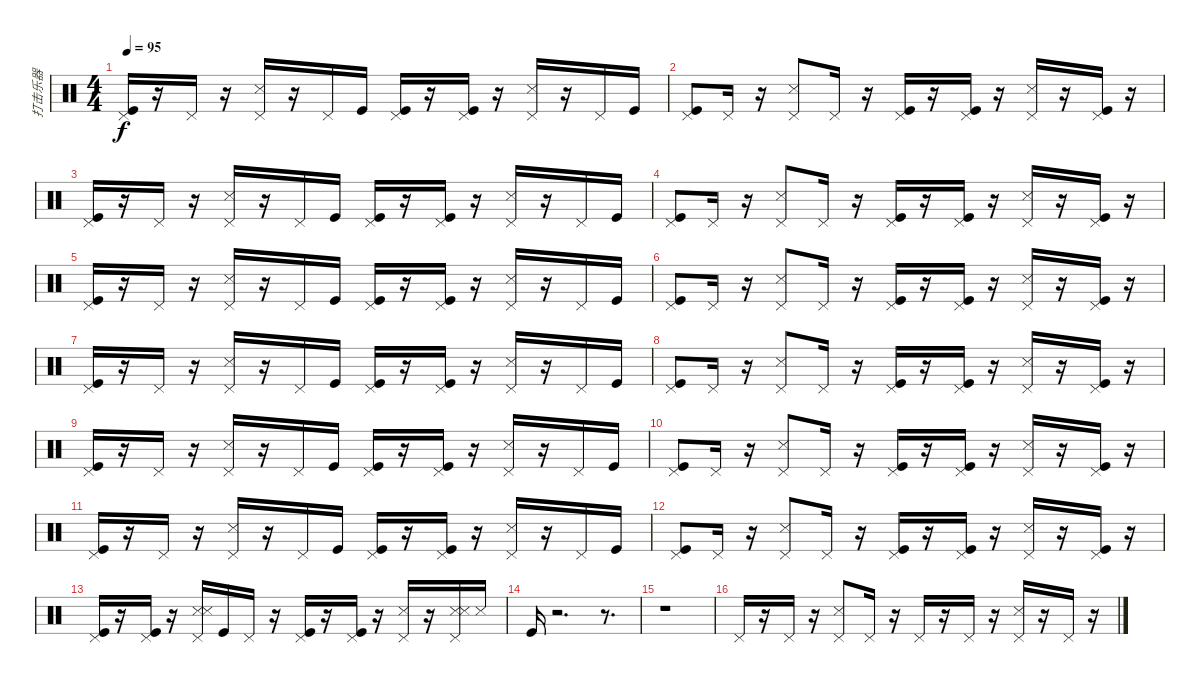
\track ("打击乐器" "打击乐器") {instrument percussion}
\staff {score}
\articulation defaults
\ts (4 4)
\tempo 95
\clef neutral
\ks c
("Pedal Hi-Hat (hit)" "Kick (hit)").16{dy f} r.16 "Pedal Hi-Hat (hit)".16 r.16 ("Pedal Hi-Hat (hit)" "Snare (side stick) 3").16 r.16 "Pedal Hi-Hat (hit)".16 "Kick (hit)".16 ("Pedal Hi-Hat (hit)" "Kick (hit)").16 r.16 ("Pedal Hi-Hat (hit)" "Kick (hit)").16 r.16 ("Pedal Hi-Hat (hit)" "Snare (side stick) 3").16 r.16 "Pedal Hi-Hat (hit)".16 "Kick (hit)".16 |
("Pedal Hi-Hat (hit)" "Kick (hit)").8 "Pedal Hi-Hat (hit)".16 r.16 ("Pedal Hi-Hat (hit)" "Snare (side stick) 3").8 "Pedal Hi-Hat (hit)".16 r.16 ("Kick (hit)" "Pedal Hi-Hat (hit)").16 r.16 ("Kick (hit)" "Pedal Hi-Hat (hit)").16 r.16 ("Snare (side stick) 3" "Pedal Hi-Hat (hit)").16 r.16 ("Kick (hit)" "Pedal Hi-Hat (hit)").16 r.16 |
("Pedal Hi-Hat (hit)" "Kick (hit)").16 r.16 "Pedal Hi-Hat (hit)".16 r.16 ("Pedal Hi-Hat (hit)" "Snare (side stick) 3").16 r.16 "Pedal Hi-Hat (hit)".16 "Kick (hit)".16 ("Pedal Hi-Hat (hit)" "Kick (hit)").16 r.16 ("Pedal Hi-Hat (hit)" "Kick (hit)").16 r.16 ("Pedal Hi-Hat (hit)" "Snare (side stick) 3").16 r.16 "Pedal Hi-Hat (hit)".16 "Kick (hit)".16 |
("Pedal Hi-Hat (hit)" "Kick (hit)").8 "Pedal Hi-Hat (hit)".16 r.16 ("Pedal Hi-Hat (hit)" "Snare (side stick) 3").8 "Pedal Hi-Hat (hit)".16 r.16 ("Kick (hit)" "Pedal Hi-Hat (hit)").16 r.16 ("Kick (hit)" "Pedal Hi-Hat (hit)").16 r.16 ("Snare (side stick) 3" "Pedal Hi-Hat (hit)").16 r.16 ("Kick (hit)" "Pedal Hi-Hat (hit)").16 r.16 |
("Pedal Hi-Hat (hit)" "Kick (hit)").16 r.16 "Pedal Hi-Hat (hit)".16 r.16 ("Pedal Hi-Hat (hit)" "Snare (side stick) 3").16 r.16 "Pedal Hi-Hat (hit)".16 "Kick (hit)".16 ("Pedal Hi-Hat (hit)" "Kick (hit)").16 r.16 ("Pedal Hi-Hat (hit)" "Kick (hit)").16 r.16 ("Pedal Hi-Hat (hit)" "Snare (side stick) 3").16 r.16 "Pedal Hi-Hat (hit)".16 "Kick (hit)".16 |
("Pedal Hi-Hat (hit)" "Kick (hit)").8 "Pedal Hi-Hat (hit)".16 r.16 ("Pedal Hi-Hat (hit)" "Snare (side stick) 3").8 "Pedal Hi-Hat (hit)".16 r.16 ("Kick (hit)" "Pedal Hi-Hat (hit)").16 r.16 ("Kick (hit)" "Pedal Hi-Hat (hit)").16 r.16 ("Snare (side stick) 3" "Pedal Hi-Hat (hit)").16 r.16 ("Kick (hit)" "Pedal Hi-Hat (hit)").16 r.16 |
("Pedal Hi-Hat (hit)" "Kick (hit)").16 r.16 "Pedal Hi-Hat (hit)".16 r.16 ("Pedal Hi-Hat (hit)" "Snare (side stick) 3").16 r.16 "Pedal Hi-Hat (hit)".16 "Kick (hit)".16 ("Pedal Hi-Hat (hit)" "Kick (hit)").16 r.16 ("Pedal Hi-Hat (hit)" "Kick (hit)").16 r.16 ("Pedal Hi-Hat (hit)" "Snare (side stick) 3").16 r.16 "Pedal Hi-Hat (hit)".16 "Kick (hit)".16 |
("Pedal Hi-Hat (hit)" "Kick (hit)").8 "Pedal Hi-Hat (hit)".16 r.16 ("Pedal Hi-Hat (hit)" "Snare (side stick) 3").8 "Pedal Hi-Hat (hit)".16 r.16 ("Kick (hit)" "Pedal Hi-Hat (hit)").16 r.16 ("Kick (hit)" "Pedal Hi-Hat (hit)").16 r.16 ("Snare (side stick) 3" "Pedal Hi-Hat (hit)").16 r.16 ("Kick (hit)" "Pedal Hi-Hat (hit)").16 r.16 |
("Pedal Hi-Hat (hit)" "Kick (hit)").16 r.16 "Pedal Hi-Hat (hit)".16 r.16 ("Pedal Hi-Hat (hit)" "Snare (side stick) 3").16 r.16 "Pedal Hi-Hat (hit)".16 "Kick (hit)".16 ("Pedal Hi-Hat (hit)" "Kick (hit)").16 r.16 ("Pedal Hi-Hat (hit)" "Kick (hit)").16 r.16 ("Pedal Hi-Hat (hit)" "Snare (side stick) 3").16 r.16 "Pedal Hi-Hat (hit)".16 "Kick (hit)".16 |
("Pedal Hi-Hat (hit)" "Kick (hit)").8 "Pedal Hi-Hat (hit)".16 r.16 ("Pedal Hi-Hat (hit)" "Snare (side stick) 3").8 "Pedal Hi-Hat (hit)".16 r.16 ("Kick (hit)" "Pedal Hi-Hat (hit)").16 r.16 ("Kick (hit)" "Pedal Hi-Hat (hit)").16 r.16 ("Snare (side stick) 3" "Pedal Hi-Hat (hit)").16 r.16 ("Kick (hit)" "Pedal Hi-Hat (hit)").16 r.16 |
("Pedal Hi-Hat (hit)" "Kick (hit)").16 r.16 "Pedal Hi-Hat (hit)".16 r.16 ("Pedal Hi-Hat (hit)" "Snare (side stick) 3").16 r.16 "Pedal Hi-Hat (hit)".16 "Kick (hit)".16 ("Pedal Hi-Hat (hit)" "Kick (hit)").16 r.16 ("Pedal Hi-Hat (hit)" "Kick (hit)").16 r.16 ("Pedal Hi-Hat (hit)" "Snare (side stick) 3").16 r.16 "Pedal Hi-Hat (hit)".16 "Kick (hit)".16 |
("Pedal Hi-Hat (hit)" "Kick (hit)").8 "Pedal Hi-Hat (hit)".16 r.16 ("Pedal Hi-Hat (hit)" "Snare (side stick) 3").8 "Pedal Hi-Hat (hit)".16 r.16 ("Kick (hit)" "Pedal Hi-Hat (hit)").16 r.16 ("Kick (hit)" "Pedal Hi-Hat (hit)").16 r.16 ("Snare (side stick) 3" "Pedal Hi-Hat (hit)").16 r.16 ("Kick (hit)" "Pedal Hi-Hat (hit)").16 r.16 |
("Pedal Hi-Hat (hit)" "Kick (hit)").16 r.16 ("Kick (hit)" "Pedal Hi-Hat (hit)").16 r.16 ("Snare (side stick) 3" "Pedal Hi-Hat (hit)" "Snare (side stick) 3").16 "Kick (hit)".16 "Pedal Hi-Hat (hit)".16 r.16 ("Pedal Hi-Hat (hit)" "Kick (hit)").16 r.16 ("Pedal Hi-Hat (hit)" "Kick (hit)").16 r.16 ("Pedal Hi-Hat (hit)" "Snare (side stick) 3").16 r.16 ("Snare (side stick) 3" "Snare (side stick) 3" "Pedal Hi-Hat (hit)").16 "Snare (side stick) 3".16 |
"Kick (hit)".16 r.2{d} r.8{d} |
r.1 |
"Pedal Hi-Hat (hit)".16 r.16 "Pedal Hi-Hat (hit)".16 r.16 ("Pedal Hi-Hat (hit)" "Snare (side stick) 3").8 "Pedal Hi-Hat (hit)".16 r.16 "Pedal Hi-Hat (hit)".16 r.16 "Pedal Hi-Hat (hit)".16 r.16 ("Snare (side stick) 3" "Pedal Hi-Hat (hit)").16 r.16 "Pedal Hi-Hat (hit)".16 r.16
